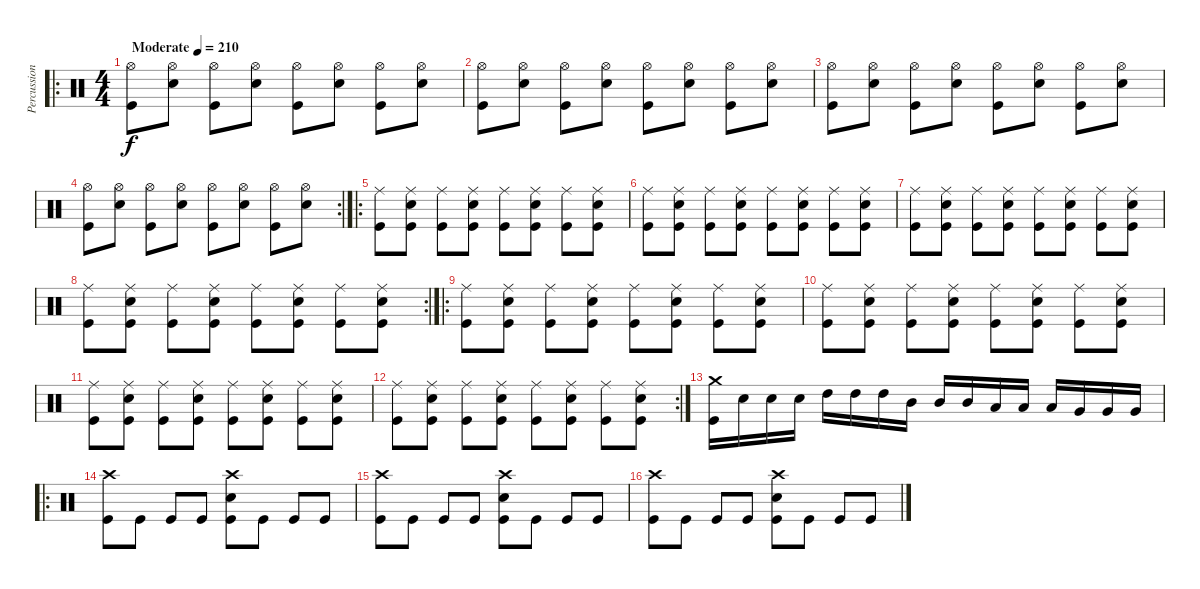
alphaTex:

\track ("Percussion" "Percussion") {instrument percussion}
\staff {score}
\articulation defaults
\ro
\ts (4 4)
\tempo (210 "Moderate")
\clef neutral
\ks c
("Hi-Hat (open)" "Kick (hit)").8{dy f} ("Hi-Hat (open)" "Snare (hit) 2").8 ("Hi-Hat (open)" "Kick (hit)").8 ("Hi-Hat (open)" "Snare (hit) 2").8 ("Hi-Hat (open)" "Kick (hit)").8 ("Hi-Hat (open)" "Snare (hit) 2").8 ("Hi-Hat (open)" "Kick (hit)").8 ("Hi-Hat (open)" "Snare (hit) 2").8 |
("Hi-Hat (open)" "Kick (hit)").8 ("Hi-Hat (open)" "Snare (hit) 2").8 ("Hi-Hat (open)" "Kick (hit)").8 ("Hi-Hat (open)" "Snare (hit) 2").8 ("Hi-Hat (open)" "Kick (hit)").8 ("Hi-Hat (open)" "Snare (hit) 2").8 ("Hi-Hat (open)" "Kick (hit)").8 ("Hi-Hat (open)" "Snare (hit) 2").8 |
("Hi-Hat (open)" "Kick (hit)").8 ("Hi-Hat (open)" "Snare (hit) 2").8 ("Hi-Hat (open)" "Kick (hit)").8 ("Hi-Hat (open)" "Snare (hit) 2").8 ("Hi-Hat (open)" "Kick (hit)").8 ("Hi-Hat (open)" "Snare (hit) 2").8 ("Hi-Hat (open)" "Kick (hit)").8 ("Hi-Hat (open)" "Snare (hit) 2").8 |
\rc 2
("Hi-Hat (open)" "Kick (hit)").8 ("Hi-Hat (open)" "Snare (hit) 2").8 ("Hi-Hat (open)" "Kick (hit)").8 ("Hi-Hat (open)" "Snare (hit) 2").8 ("Hi-Hat (open)" "Kick (hit)").8 ("Hi-Hat (open)" "Snare (hit) 2").8 ("Hi-Hat (open)" "Kick (hit)").8 ("Hi-Hat (open)" "Snare (hit) 2").8 |
\ro
("Ride (middle)" "Kick (hit)").8 ("Ride (middle)" "Snare (hit) 2" "Kick (hit)").8 ("Ride (middle)" "Kick (hit)").8 ("Ride (middle)" "Snare (hit) 2" "Kick (hit)").8 ("Ride (middle)" "Kick (hit)").8 ("Ride (middle)" "Snare (hit) 2" "Kick (hit)").8 ("Ride (middle)" "Kick (hit)").8 ("Ride (middle)" "Snare (hit) 2" "Kick (hit)").8 |
("Ride (middle)" "Kick (hit)").8 ("Ride (middle)" "Snare (hit) 2" "Kick (hit)").8 ("Ride (middle)" "Kick (hit)").8 ("Ride (middle)" "Snare (hit) 2" "Kick (hit)").8 ("Ride (middle)" "Kick (hit)").8 ("Ride (middle)" "Snare (hit) 2" "Kick (hit)").8 ("Ride (middle)" "Kick (hit)").8 ("Ride (middle)" "Snare (hit) 2" "Kick (hit)").8 |
("Ride (middle)" "Kick (hit)").8 ("Ride (middle)" "Snare (hit) 2" "Kick (hit)").8 ("Ride (middle)" "Kick (hit)").8 ("Ride (middle)" "Snare (hit) 2" "Kick (hit)").8 ("Ride (middle)" "Kick (hit)").8 ("Ride (middle)" "Snare (hit) 2" "Kick (hit)").8 ("Ride (middle)" "Kick (hit)").8 ("Ride (middle)" "Snare (hit) 2" "Kick (hit)").8 |
\rc 2
("Ride (middle)" "Kick (hit)").8 ("Ride (middle)" "Snare (hit) 2" "Kick (hit)").8 ("Ride (middle)" "Kick (hit)").8 ("Ride (middle)" "Snare (hit) 2" "Kick (hit)").8 ("Ride (middle)" "Kick (hit)").8 ("Ride (middle)" "Snare (hit) 2" "Kick (hit)").8 ("Ride (middle)" "Kick (hit)").8 ("Ride (middle)" "Snare (hit) 2" "Kick (hit)").8 |
\ro
("Ride (middle)" "Kick (hit)").8 ("Ride (middle)" "Snare (hit) 2" "Kick (hit)").8 ("Ride (middle)" "Kick (hit)").8 ("Ride (middle)" "Snare (hit) 2" "Kick (hit)").8 ("Ride (middle)" "Kick (hit)").8 ("Ride (middle)" "Snare (hit) 2" "Kick (hit)").8 ("Ride (middle)" "Kick (hit)").8 ("Ride (middle)" "Snare (hit) 2" "Kick (hit)").8 |
("Ride (middle)" "Kick (hit)").8 ("Ride (middle)" "Snare (hit) 2" "Kick (hit)").8 ("Ride (middle)" "Kick (hit)").8 ("Ride (middle)" "Snare (hit) 2" "Kick (hit)").8 ("Ride (middle)" "Kick (hit)").8 ("Ride (middle)" "Snare (hit) 2" "Kick (hit)").8 ("Ride (middle)" "Kick (hit)").8 ("Ride (middle)" "Snare (hit) 2" "Kick (hit)").8 |
("Ride (middle)" "Kick (hit)").8 ("Ride (middle)" "Snare (hit) 2" "Kick (hit)").8 ("Ride (middle)" "Kick (hit)").8 ("Ride (middle)" "Snare (hit) 2" "Kick (hit)").8 ("Ride (middle)" "Kick (hit)").8 ("Ride (middle)" "Snare (hit) 2" "Kick (hit)").8 ("Ride (middle)" "Kick (hit)").8 ("Ride (middle)" "Snare (hit) 2" "Kick (hit)").8 |
\rc 2
("Ride (middle)" "Kick (hit)").8 ("Ride (middle)" "Snare (hit) 2" "Kick (hit)").8 ("Ride (middle)" "Kick (hit)").8 ("Ride (middle)" "Snare (hit) 2" "Kick (hit)").8 ("Ride (middle)" "Kick (hit)").8 ("Ride (middle)" "Snare (hit) 2" "Kick (hit)").8 ("Ride (middle)" "Kick (hit)").8 ("Ride (middle)" "Snare (hit) 2" "Kick (hit)").8 |
("Crash medium (hit)" "Kick (hit)").16 "Snare (hit) 2".16 "Snare (hit) 2".16 "Snare (hit) 2".16 "High Tom (hit)".16 "High Tom (hit)".16 "High Tom (hit)".16 "Mid Tom (hit)".16 "Mid Tom (hit)".16 "Mid Tom (hit)".16 "Low Tom (hit)".16 "Low Tom (hit)".16 "Low Tom (hit)".16 "Very Low Tom (hit)".16 "Very Low Tom (hit)".16 "Very Low Tom (hit)".16 |
\ro
("Crash high (hit)" "Kick (hit)").8 "Kick (hit)".8 "Kick (hit)".8 "Kick (hit)".8 ("Crash high (hit)" "Snare (hit) 2" "Kick (hit)").8 "Kick (hit)".8 "Kick (hit)".8 "Kick (hit)".8 |
("Crash high (hit)" "Kick (hit)").8 "Kick (hit)".8 "Kick (hit)".8 "Kick (hit)".8 ("Crash high (hit)" "Snare (hit) 2" "Kick (hit)").8 "Kick (hit)".8 "Kick (hit)".8 "Kick (hit)".8 |
("Crash high (hit)" "Kick (hit)").8 "Kick (hit)".8 "Kick (hit)".8 "Kick (hit)".8 ("Crash high (hit)" "Snare (hit) 2" "Kick (hit)").8 "Kick (hit)".8 "Kick (hit)".8 "Kick (hit)".8
